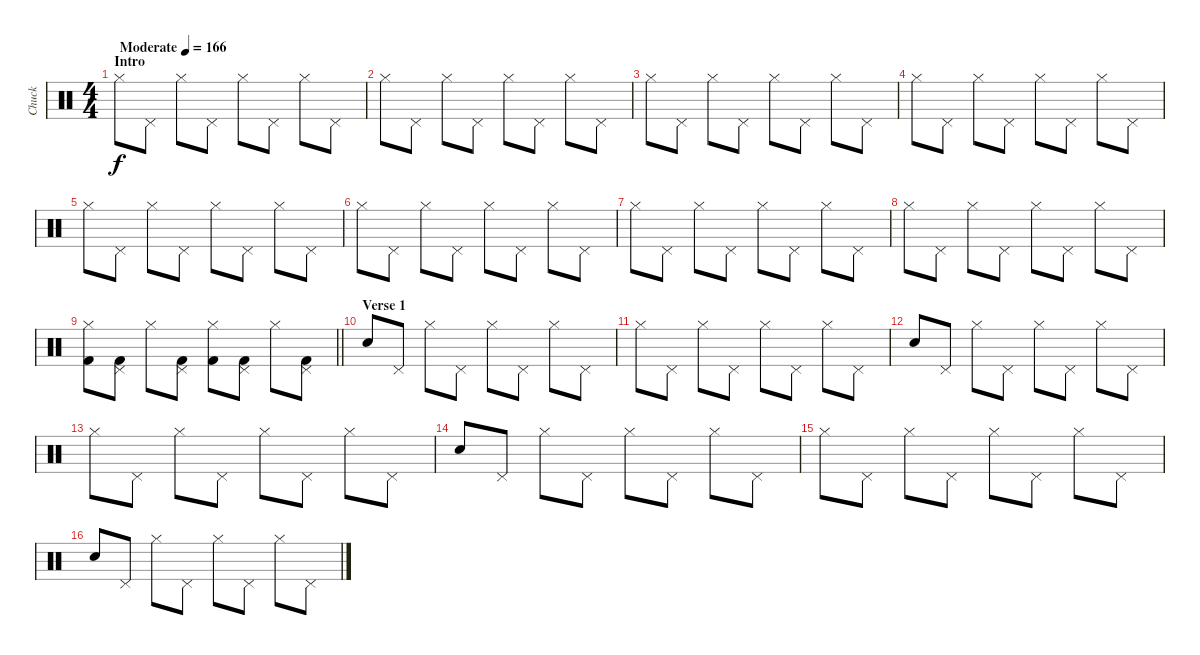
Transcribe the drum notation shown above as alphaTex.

\track ("Chuck" "Chuck") {instrument percussion}
\staff {score}
\articulation defaults
\ts (4 4)
\section ("" "Intro")
\tempo (166 "Moderate")
\clef neutral
\ks c "Hi-Hat (closed)".8{dy f} "Pedal Hi-Hat (hit)".8 "Hi-Hat (closed)".8 "Pedal Hi-Hat (hit)".8 "Hi-Hat (closed)".8 "Pedal Hi-Hat (hit)".8 "Hi-Hat (closed)".8 "Pedal Hi-Hat (hit)".8
|
"Hi-Hat (closed)".8 "Pedal Hi-Hat (hit)".8 "Hi-Hat (closed)".8 "Pedal Hi-Hat (hit)".8 "Hi-Hat (closed)".8 "Pedal Hi-Hat (hit)".8 "Hi-Hat (closed)".8 "Pedal Hi-Hat (hit)".8 |
"Hi-Hat (closed)".8 "Pedal Hi-Hat (hit)".8 "Hi-Hat (closed)".8 "Pedal Hi-Hat (hit)".8 "Hi-Hat (closed)".8 "Pedal Hi-Hat (hit)".8 "Hi-Hat (closed)".8 "Pedal Hi-Hat (hit)".8 |
"Hi-Hat (closed)".8 "Pedal Hi-Hat (hit)".8 "Hi-Hat (closed)".8 "Pedal Hi-Hat (hit)".8 "Hi-Hat (closed)".8 "Pedal Hi-Hat (hit)".8 "Hi-Hat (closed)".8 "Pedal Hi-Hat (hit)".8 |
"Hi-Hat (closed)".8 "Pedal Hi-Hat (hit)".8 "Hi-Hat (closed)".8 "Pedal Hi-Hat (hit)".8 "Hi-Hat (closed)".8 "Pedal Hi-Hat (hit)".8 "Hi-Hat (closed)".8 "Pedal Hi-Hat (hit)".8 |
"Hi-Hat (closed)".8 "Pedal Hi-Hat (hit)".8 "Hi-Hat (closed)".8 "Pedal Hi-Hat (hit)".8 "Hi-Hat (closed)".8 "Pedal Hi-Hat (hit)".8 "Hi-Hat (closed)".8 "Pedal Hi-Hat (hit)".8 |
"Hi-Hat (closed)".8 "Pedal Hi-Hat (hit)".8 "Hi-Hat (closed)".8 "Pedal Hi-Hat (hit)".8 "Hi-Hat (closed)".8 "Pedal Hi-Hat (hit)".8 "Hi-Hat (closed)".8 "Pedal Hi-Hat (hit)".8 |
"Hi-Hat (closed)".8 "Pedal Hi-Hat (hit)".8 "Hi-Hat (closed)".8 "Pedal Hi-Hat (hit)".8 "Hi-Hat (closed)".8 "Pedal Hi-Hat (hit)".8 "Hi-Hat (closed)".8 "Pedal Hi-Hat (hit)".8 |
\barLineRight lightlight
("Hi-Hat (closed)" "Kick (hit) 2").8 ("Pedal Hi-Hat (hit)" "Kick (hit) 2").8 "Hi-Hat (closed)".8 ("Pedal Hi-Hat (hit)" "Kick (hit) 2").8 ("Hi-Hat (closed)" "Kick (hit) 2").8 ("Pedal Hi-Hat (hit)" "Kick (hit) 2").8 "Hi-Hat (closed)".8 ("Pedal Hi-Hat (hit)" "Kick (hit) 2").8 |
\section ("" "Verse 1")
"Hand Clap (hit)".8 "Pedal Hi-Hat (hit)".8 "Hi-Hat (closed)".8 "Pedal Hi-Hat (hit)".8 "Hi-Hat (closed)".8 "Pedal Hi-Hat (hit)".8 "Hi-Hat (closed)".8 "Pedal Hi-Hat (hit)".8 |
"Hi-Hat (closed)".8 "Pedal Hi-Hat (hit)".8 "Hi-Hat (closed)".8 "Pedal Hi-Hat (hit)".8 "Hi-Hat (closed)".8 "Pedal Hi-Hat (hit)".8 "Hi-Hat (closed)".8 "Pedal Hi-Hat (hit)".8 |
"Hand Clap (hit)".8 "Pedal Hi-Hat (hit)".8 "Hi-Hat (closed)".8 "Pedal Hi-Hat (hit)".8 "Hi-Hat (closed)".8 "Pedal Hi-Hat (hit)".8 "Hi-Hat (closed)".8 "Pedal Hi-Hat (hit)".8 |
"Hi-Hat (closed)".8 "Pedal Hi-Hat (hit)".8 "Hi-Hat (closed)".8 "Pedal Hi-Hat (hit)".8 "Hi-Hat (closed)".8 "Pedal Hi-Hat (hit)".8 "Hi-Hat (closed)".8 "Pedal Hi-Hat (hit)".8 |
"Hand Clap (hit)".8 "Pedal Hi-Hat (hit)".8 "Hi-Hat (closed)".8 "Pedal Hi-Hat (hit)".8 "Hi-Hat (closed)".8 "Pedal Hi-Hat (hit)".8 "Hi-Hat (closed)".8 "Pedal Hi-Hat (hit)".8 |
"Hi-Hat (closed)".8 "Pedal Hi-Hat (hit)".8 "Hi-Hat (closed)".8 "Pedal Hi-Hat (hit)".8 "Hi-Hat (closed)".8 "Pedal Hi-Hat (hit)".8 "Hi-Hat (closed)".8 "Pedal Hi-Hat (hit)".8 |
"Hand Clap (hit)".8 "Pedal Hi-Hat (hit)".8 "Hi-Hat (closed)".8 "Pedal Hi-Hat (hit)".8 "Hi-Hat (closed)".8 "Pedal Hi-Hat (hit)".8 "Hi-Hat (closed)".8 "Pedal Hi-Hat (hit)".8
